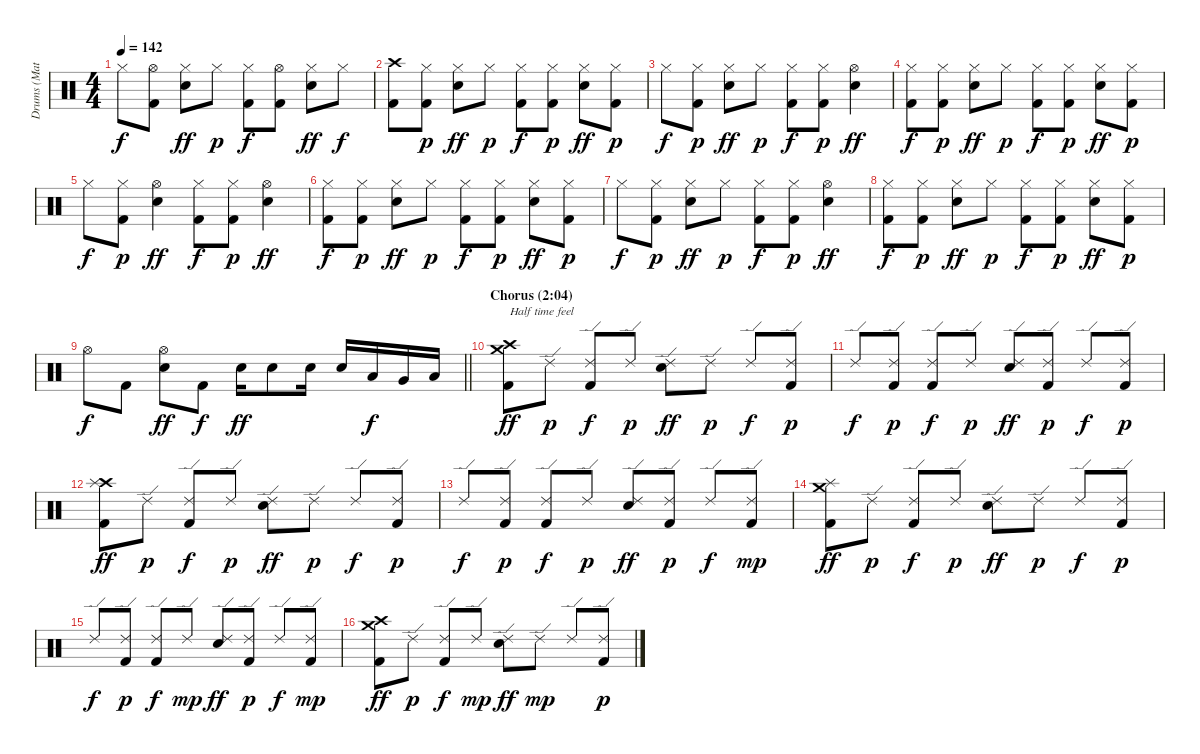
\track ("Drums (Matt Sorum)" "Drums (Mat") {instrument percussion}
\staff {score}
\articulation defaults
\ts (4 4)
\tempo 142
\clef neutral
\ks c "Hi-Hat (closed)".8{dy f}
("Hi-Hat (open)" "Kick (hit) 2").8 ("Hi-Hat (closed)" "Snare (hit) 2").8{dy ff} "Hi-Hat (closed)".8{dy p} ("Hi-Hat (closed)" "Kick (hit) 2").8{dy f} ("Hi-Hat (open)" "Kick (hit) 2").8 ("Hi-Hat (closed)" "Snare (hit) 2").8{dy ff} "Hi-Hat (closed)".8{dy f} |
("Crash high (hit)" "Kick (hit) 2").8 ("Hi-Hat (closed)" "Kick (hit) 2").8{dy p} ("Hi-Hat (closed)" "Snare (hit) 2").8{dy ff} "Hi-Hat (closed)".8{dy p} ("Hi-Hat (closed)" "Kick (hit) 2").8{dy f} ("Hi-Hat (closed)" "Kick (hit) 2").8{dy p} ("Hi-Hat (closed)" "Snare (hit) 2").8{dy ff} ("Hi-Hat (closed)" "Kick (hit) 2").8{dy p} |
"Hi-Hat (closed)".8{dy f} ("Hi-Hat (closed)" "Kick (hit) 2").8{dy p} ("Hi-Hat (closed)" "Snare (hit) 2").8{dy ff} "Hi-Hat (closed)".8{dy p} ("Hi-Hat (closed)" "Kick (hit) 2").8{dy f} ("Hi-Hat (closed)" "Kick (hit) 2").8{dy p} ("Hi-Hat (open)" "Snare (hit) 2").4{dy ff} |
("Hi-Hat (closed)" "Kick (hit) 2").8{dy f} ("Hi-Hat (closed)" "Kick (hit) 2").8{dy p} ("Hi-Hat (closed)" "Snare (hit) 2").8{dy ff} "Hi-Hat (closed)".8{dy p} ("Hi-Hat (closed)" "Kick (hit) 2").8{dy f} ("Hi-Hat (closed)" "Kick (hit) 2").8{dy p} ("Hi-Hat (closed)" "Snare (hit) 2").8{dy ff} ("Hi-Hat (closed)" "Kick (hit) 2").8{dy p} |
"Hi-Hat (closed)".8{dy f} ("Hi-Hat (closed)" "Kick (hit) 2").8{dy p} ("Hi-Hat (open)" "Snare (hit) 2").4{dy ff} ("Hi-Hat (closed)" "Kick (hit) 2").8{dy f} ("Hi-Hat (closed)" "Kick (hit) 2").8{dy p} ("Hi-Hat (open)" "Snare (hit) 2").4{dy ff} |
("Hi-Hat (closed)" "Kick (hit) 2").8{dy f} ("Hi-Hat (closed)" "Kick (hit) 2").8{dy p} ("Hi-Hat (closed)" "Snare (hit) 2").8{dy ff} "Hi-Hat (closed)".8{dy p} ("Hi-Hat (closed)" "Kick (hit) 2").8{dy f} ("Hi-Hat (closed)" "Kick (hit) 2").8{dy p} ("Hi-Hat (closed)" "Snare (hit) 2").8{dy ff} ("Hi-Hat (closed)" "Kick (hit) 2").8{dy p} |
"Hi-Hat (closed)".8{dy f} ("Hi-Hat (closed)" "Kick (hit) 2").8{dy p} ("Hi-Hat (closed)" "Snare (hit) 2").8{dy ff} "Hi-Hat (closed)".8{dy p} ("Hi-Hat (closed)" "Kick (hit) 2").8{dy f} ("Hi-Hat (closed)" "Kick (hit) 2").8{dy p} ("Hi-Hat (open)" "Snare (hit) 2").4{dy ff} |
("Hi-Hat (closed)" "Kick (hit) 2").8{dy f} ("Hi-Hat (closed)" "Kick (hit) 2").8{dy p} ("Hi-Hat (closed)" "Snare (hit) 2").8{dy ff} "Hi-Hat (closed)".8{dy p} ("Hi-Hat (closed)" "Kick (hit) 2").8{dy f} ("Hi-Hat (closed)" "Kick (hit) 2").8{dy p} ("Hi-Hat (closed)" "Snare (hit) 2").8{dy ff} ("Hi-Hat (closed)" "Kick (hit) 2").8{dy p} |
\barLineRight lightlight "Hi-Hat (open)".8{dy f} "Kick (hit) 2".8
("Hi-Hat (open)" "Snare (hit) 2").8{dy ff} "Kick (hit) 2".8{dy f} "Snare (hit) 2".16{dy ff} "Snare (hit) 2".8 "Snare (hit) 2".16 "Snare (hit) 2".16 "Low Tom (hit)".16{dy f} "Very Low Tom (hit)".16 "Low Floor Tom (hit)".16 |
\section ("" "Chorus (2:04)")
("Crash high (hit)" "Crash medium (hit)" "Kick (hit) 2").8{txt "Half time feel" dy ff} "Ride (edge) 2".8{dy p} ("Ride (edge) 2" "Kick (hit) 2").8{dy f} "Ride (edge) 2".8{dy p} ("Ride (edge) 2" "Snare (hit) 2").8{dy ff} "Ride (edge) 2".8{dy p} "Ride (edge) 2".8{dy f} ("Ride (edge) 2" "Kick (hit) 2").8{dy p} |
"Ride (edge) 2".8{dy f} ("Ride (edge) 2" "Kick (hit) 2").8{dy p} ("Ride (edge) 2" "Kick (hit) 2").8{dy f} "Ride (edge) 2".8{dy p} ("Ride (edge) 2" "Snare (hit) 2").8{dy ff} ("Ride (edge) 2" "Kick (hit) 2").8{dy p} "Ride (edge) 2".8{dy f} ("Ride (edge) 2" "Kick (hit) 2").8{dy p} |
("Crash high (hit)" "Splash (hit)" "Kick (hit) 2").8{dy ff} "Ride (edge) 2".8{dy p} ("Ride (edge) 2" "Kick (hit) 2").8{dy f} "Ride (edge) 2".8{dy p} ("Ride (edge) 2" "Snare (hit) 2").8{dy ff} "Ride (edge) 2".8{dy p} "Ride (edge) 2".8{dy f} ("Ride (edge) 2" "Kick (hit) 2").8{dy p} |
"Ride (edge) 2".8{dy f} ("Ride (edge) 2" "Kick (hit) 2").8{dy p} ("Ride (edge) 2" "Kick (hit) 2").8{dy f} "Ride (edge) 2".8{dy p} ("Ride (edge) 2" "Snare (hit) 2").8{dy ff} ("Ride (edge) 2" "Kick (hit) 2").8{dy p} "Ride (edge) 2".8{dy f} ("Ride (edge) 2" "Kick (hit) 2").8{dy mp} |
("Crash medium (hit)" "Splash (hit)" "Kick (hit) 2").8{dy ff} "Ride (edge) 2".8{dy p} ("Ride (edge) 2" "Kick (hit) 2").8{dy f} "Ride (edge) 2".8{dy p} ("Ride (edge) 2" "Snare (hit) 2").8{dy ff} "Ride (edge) 2".8{dy p} "Ride (edge) 2".8{dy f} ("Ride (edge) 2" "Kick (hit) 2").8{dy p} |
"Ride (edge) 2".8{dy f} ("Ride (edge) 2" "Kick (hit) 2").8{dy p} ("Ride (edge) 2" "Kick (hit) 2").8{dy f} "Ride (edge) 2".8{dy mp} ("Ride (edge) 2" "Snare (hit) 2").8{dy ff} ("Ride (edge) 2" "Kick (hit) 2").8{dy p} "Ride (edge) 2".8{dy f} ("Ride (edge) 2" "Kick (hit) 2").8{dy mp} |
("Crash high (hit)" "Crash medium (hit)" "Kick (hit) 2").8{dy ff} "Ride (edge) 2".8{dy p} ("Ride (edge) 2" "Kick (hit) 2").8{dy f} "Ride (edge) 2".8{dy mp} ("Ride (edge) 2" "Snare (hit) 2").8{dy ff} "Ride (edge) 2".8{dy mp} "Ride (edge) 2".8 ("Ride (edge) 2" "Kick (hit) 2").8{dy p}
